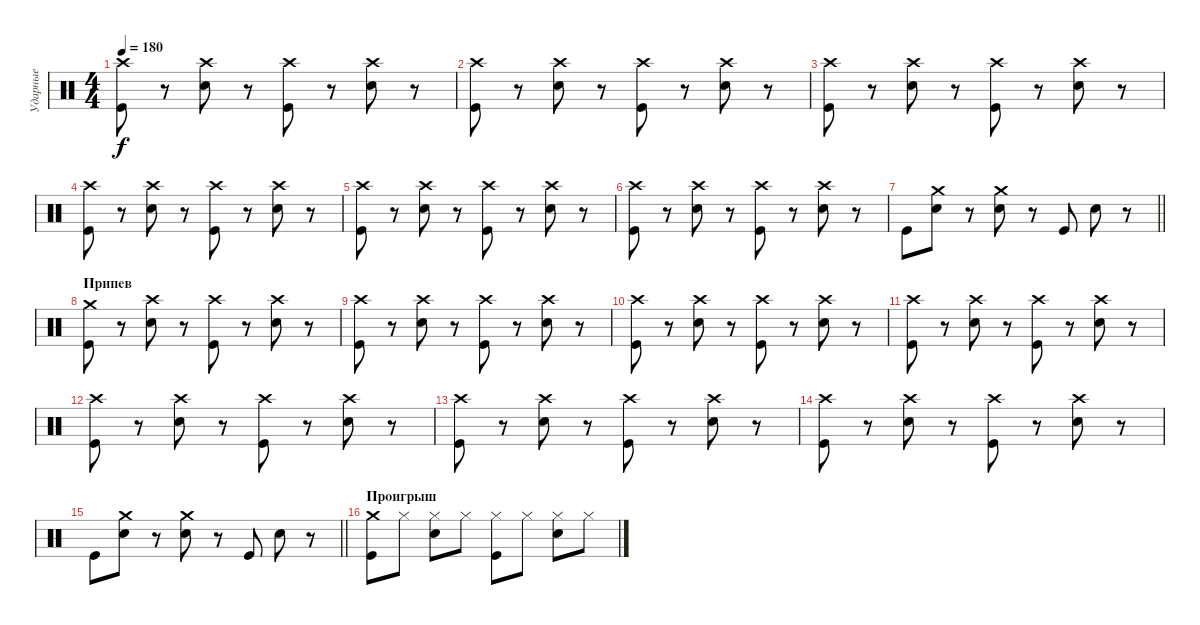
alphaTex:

\track ("Ударные" "Ударные") {instrument percussion}
\staff {score}
\articulation defaults
\ts (4 4)
\tempo 180
\clef neutral
\ks c
("Crash high (hit)" "Kick (hit)").8{dy f} r.8 ("Crash high (hit)" "Electric Snare (hit)").8 r.8 ("Crash high (hit)" "Kick (hit)").8 r.8 ("Crash high (hit)" "Electric Snare (hit)").8 r.8 |
("Crash high (hit)" "Kick (hit)").8 r.8 ("Crash high (hit)" "Electric Snare (hit)").8 r.8 ("Crash high (hit)" "Kick (hit)").8 r.8 ("Crash high (hit)" "Electric Snare (hit)").8 r.8 |
("Crash high (hit)" "Kick (hit)").8 r.8 ("Crash high (hit)" "Electric Snare (hit)").8 r.8 ("Crash high (hit)" "Kick (hit)").8 r.8 ("Crash high (hit)" "Electric Snare (hit)").8 r.8 |
("Crash high (hit)" "Kick (hit)").8 r.8 ("Crash high (hit)" "Electric Snare (hit)").8 r.8 ("Crash high (hit)" "Kick (hit)").8 r.8 ("Crash high (hit)" "Electric Snare (hit)").8 r.8 |
("Crash high (hit)" "Kick (hit)").8 r.8 ("Crash high (hit)" "Electric Snare (hit)").8 r.8 ("Crash high (hit)" "Kick (hit)").8 r.8 ("Crash high (hit)" "Electric Snare (hit)").8 r.8 |
("Crash high (hit)" "Kick (hit)").8 r.8 ("Crash high (hit)" "Electric Snare (hit)").8 r.8 ("Crash high (hit)" "Kick (hit)").8 r.8 ("Crash high (hit)" "Electric Snare (hit)").8 r.8 |
\barLineRight lightlight "Kick (hit)".8
("Crash medium (hit)" "Electric Snare (hit)").8 r.8 ("Crash medium (hit)" "Electric Snare (hit)").8 r.8 "Kick (hit)".8 "Electric Snare (hit)".8 r.8 |
\section ("" "Припев")
("Crash medium (hit)" "Kick (hit)").8 r.8 ("Crash high (hit)" "Electric Snare (hit)").8 r.8 ("Crash high (hit)" "Kick (hit)").8 r.8 ("Crash high (hit)" "Electric Snare (hit)").8 r.8 |
("Crash high (hit)" "Kick (hit)").8 r.8 ("Crash high (hit)" "Electric Snare (hit)").8 r.8 ("Crash high (hit)" "Kick (hit)").8 r.8 ("Crash high (hit)" "Electric Snare (hit)").8 r.8 |
("Crash high (hit)" "Kick (hit)").8 r.8 ("Crash high (hit)" "Electric Snare (hit)").8 r.8 ("Crash high (hit)" "Kick (hit)").8 r.8 ("Crash high (hit)" "Electric Snare (hit)").8 r.8 |
("Crash high (hit)" "Kick (hit)").8 r.8 ("Crash high (hit)" "Electric Snare (hit)").8 r.8 ("Crash high (hit)" "Kick (hit)").8 r.8 ("Crash high (hit)" "Electric Snare (hit)").8 r.8 |
("Crash high (hit)" "Kick (hit)").8 r.8 ("Crash high (hit)" "Electric Snare (hit)").8 r.8 ("Crash high (hit)" "Kick (hit)").8 r.8 ("Crash high (hit)" "Electric Snare (hit)").8 r.8 |
("Crash high (hit)" "Kick (hit)").8 r.8 ("Crash high (hit)" "Electric Snare (hit)").8 r.8 ("Crash high (hit)" "Kick (hit)").8 r.8 ("Crash high (hit)" "Electric Snare (hit)").8 r.8 |
("Crash high (hit)" "Kick (hit)").8 r.8 ("Crash high (hit)" "Electric Snare (hit)").8 r.8 ("Crash high (hit)" "Kick (hit)").8 r.8 ("Crash high (hit)" "Electric Snare (hit)").8 r.8 |
\barLineRight lightlight "Kick (hit)".8
("Crash medium (hit)" "Electric Snare (hit)").8 r.8 ("Crash medium (hit)" "Electric Snare (hit)").8 r.8 "Kick (hit)".8 "Electric Snare (hit)".8 r.8 |
\section ("" "Проигрыш")
("Crash medium (hit)" "Kick (hit)").8 "Hi-Hat (closed)".8 ("Hi-Hat (closed)" "Electric Snare (hit)").8 "Hi-Hat (closed)".8 ("Hi-Hat (closed)" "Kick (hit)").8 "Hi-Hat (closed)".8 ("Hi-Hat (closed)" "Electric Snare (hit)").8 "Hi-Hat (closed)".8
